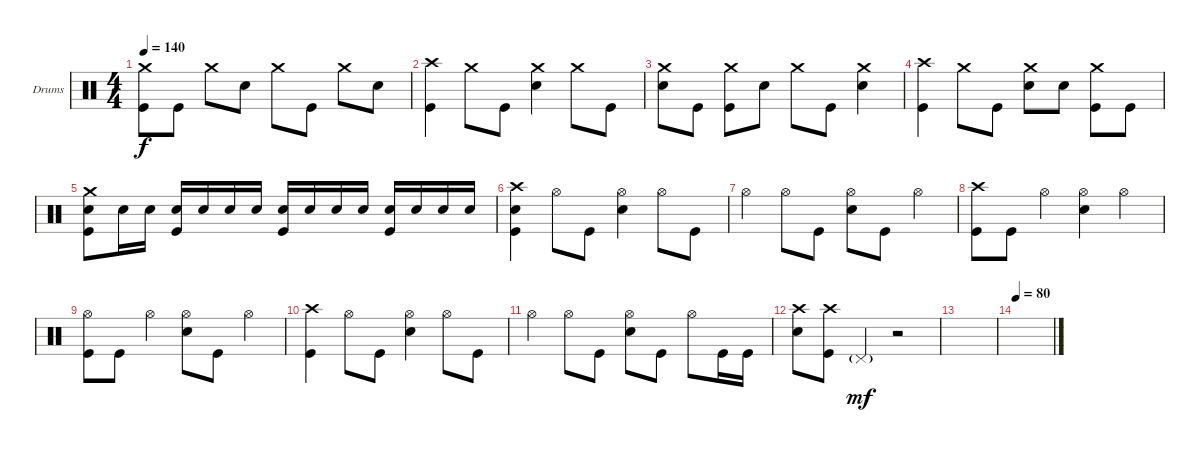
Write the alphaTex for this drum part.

\defaultSystemsLayout 4
\bracketExtendMode groupsimilarinstruments
\firstSystemTrackNameOrientation horizontal
\otherSystemsTrackNameOrientation horizontal
\track ("Drumkit" "Drums") {instrument percussion}
\staff {score}
\articulation defaults
\ts (4 4)
\tempo 140
\clef neutral
\ks c
("Crash medium (hit)" "Kick (hit)").8{dy f} "Kick (hit)".8 "Crash medium (hit)".8 "Snare (hit) 2".8 "Crash medium (hit)".8 "Kick (hit)".8 "Crash medium (hit)".8 "Snare (hit) 2".8 |
("Crash high (hit)" "Kick (hit)").4 "Crash medium (hit)".8 "Kick (hit)".8 ("Crash medium (hit)" "Snare (hit) 2").4 "Crash medium (hit)".8 "Kick (hit)".8 |
("Crash medium (hit)" "Snare (hit) 2").8 "Kick (hit)".8 ("Crash medium (hit)" "Kick (hit)").8 "Snare (hit) 2".8 "Crash medium (hit)".8 "Kick (hit)".8 ("Crash medium (hit)" "Snare (hit) 2").4 |
("Crash high (hit)" "Kick (hit)").4 "Crash medium (hit)".8 "Kick (hit)".8 ("Crash medium (hit)" "Snare (hit) 2").8 "Snare (hit) 2".8 ("Crash medium (hit)" "Kick (hit)").8 "Kick (hit)".8 |
("Crash medium (hit)" "Snare (hit) 2" "Kick (hit)").8 "Snare (hit) 2".16 "Snare (hit) 2".16 ("Snare (hit) 2" "Kick (hit)").16 "Snare (hit) 2".16 "Snare (hit) 2".16 "Snare (hit) 2".16 ("Snare (hit) 2" "Kick (hit)").16 "Snare (hit) 2".16 "Snare (hit) 2".16 "Snare (hit) 2".16 ("Snare (hit) 2" "Kick (hit)").16 "Snare (hit) 2".16 "Snare (hit) 2".16 "Snare (hit) 2".16 |
("Crash high (hit)" "Kick (hit)" "Snare (hit) 2").4 "Hi-Hat (open)".8 "Kick (hit)".8 ("Hi-Hat (open)" "Snare (hit) 2").4 "Hi-Hat (open)".8 "Kick (hit)".8 |
"Hi-Hat (open)".4 "Hi-Hat (open)".8 "Kick (hit)".8 ("Hi-Hat (open)" "Snare (hit) 2").8 "Kick (hit)".8 "Hi-Hat (open)".4 |
("Crash high (hit)" "Kick (hit)").8 "Kick (hit)".8 "Hi-Hat (open)".4 ("Hi-Hat (open)" "Snare (hit) 2").4 "Hi-Hat (open)".4 |
("Hi-Hat (open)" "Kick (hit)").8 "Kick (hit)".8 "Hi-Hat (open)".4 ("Hi-Hat (open)" "Snare (hit) 2").8 "Kick (hit)".8 "Hi-Hat (open)".4 |
("Crash high (hit)" "Kick (hit)").4 "Hi-Hat (open)".8 "Kick (hit)".8 ("Hi-Hat (open)" "Snare (hit) 2").4 "Hi-Hat (open)".8 "Kick (hit)".8 |
"Hi-Hat (open)".4 "Hi-Hat (open)".8 "Kick (hit)".8 ("Hi-Hat (open)" "Snare (hit) 2").8 "Kick (hit)".8 "Hi-Hat (open)".8 "Kick (hit)".16 "Kick (hit)".16 |
("Crash high (hit)" "Snare (hit) 2").8 ("Crash high (hit)" "Kick (hit)").8 "Pedal Hi-Hat (hit)"{g}.4{dy mf} r.2 |
|
\tempo 80
